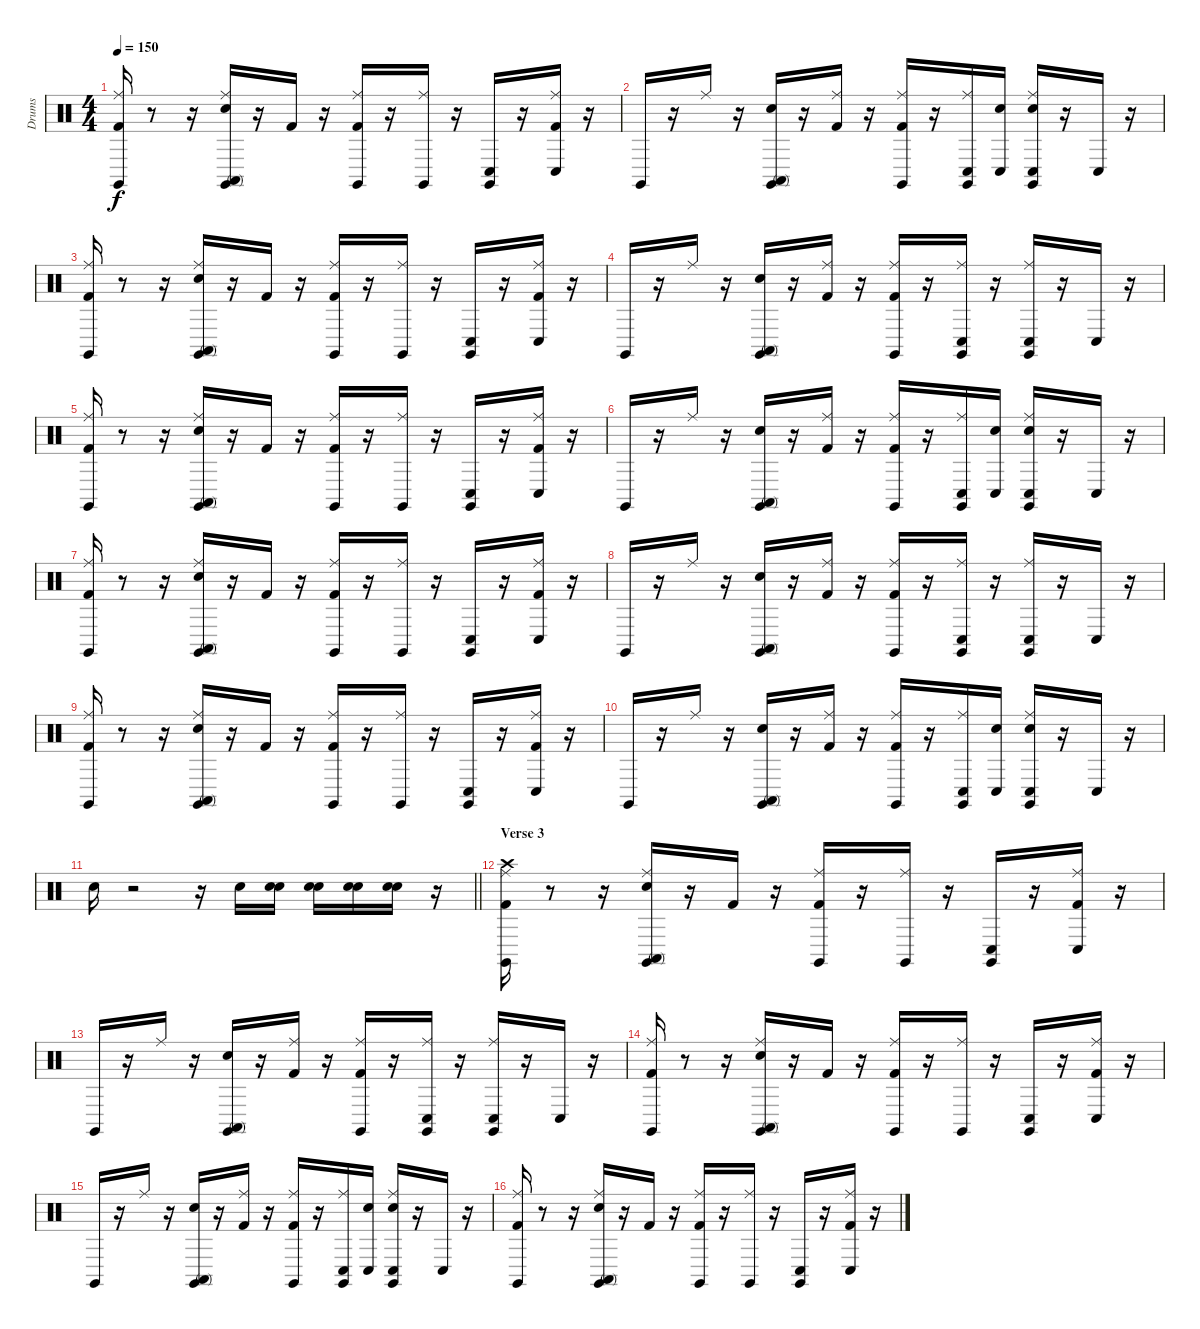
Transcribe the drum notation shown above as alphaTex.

\track ("Drums" "Drums") {instrument percussion}
\staff {score}
\articulation defaults
\ts (4 4)
\tempo 150
\clef neutral
\ks c
("Kick (hit) 2" "Ride (middle)" "Claves (hit)").16{dy f} r.8 r.16 ("Snare (hit) 2" "Ride (middle)" "Conga high (mute)" "Claves (hit)").16 r.16 "Kick (hit) 2".16 r.16 ("Kick (hit) 2" "Ride (middle)" "Claves (hit)").16 r.16 ("Ride (middle)" "Claves (hit)").16 r.16 ("Conga low (hit)" "Claves (hit)").16 r.16 ("Kick (hit) 2" "Ride (middle)" "Conga low (hit)").16 r.16 |
"Claves (hit)".16 r.16 "Ride (middle)".16 r.16 ("Snare (hit) 2" "Conga high (mute)" "Claves (hit)").16 r.16 ("Kick (hit) 2" "Ride (middle)").16 r.16 ("Kick (hit) 2" "Ride (middle)" "Claves (hit)").16 r.16 ("Ride (middle)" "Conga low (hit)" "Claves (hit)").16 ("Snare (hit)" "Conga low (hit)").16 ("Snare (hit)" "Ride (middle)" "Conga low (hit)" "Claves (hit)").16 r.16 "Conga low (hit)".16 r.16 |
("Kick (hit) 2" "Ride (middle)" "Claves (hit)").16 r.8 r.16 ("Snare (hit) 2" "Ride (middle)" "Conga high (mute)" "Claves (hit)").16 r.16 "Kick (hit) 2".16 r.16 ("Kick (hit) 2" "Ride (middle)" "Claves (hit)").16 r.16 ("Ride (middle)" "Claves (hit)").16 r.16 ("Conga low (hit)" "Claves (hit)").16 r.16 ("Kick (hit) 2" "Ride (middle)" "Conga low (hit)").16 r.16 |
"Claves (hit)".16 r.16 "Ride (middle)".16 r.16 ("Snare (hit) 2" "Conga high (mute)" "Claves (hit)").16 r.16 ("Kick (hit) 2" "Ride (middle)").16 r.16 ("Kick (hit) 2" "Ride (middle)" "Claves (hit)").16 r.16 ("Ride (middle)" "Conga low (hit)" "Claves (hit)").16 r.16 ("Ride (middle)" "Conga low (hit)" "Claves (hit)").16 r.16 "Conga low (hit)".16 r.16 |
("Kick (hit) 2" "Ride (middle)" "Claves (hit)").16 r.8 r.16 ("Snare (hit) 2" "Ride (middle)" "Conga high (mute)" "Claves (hit)").16 r.16 "Kick (hit) 2".16 r.16 ("Kick (hit) 2" "Ride (middle)" "Claves (hit)").16 r.16 ("Ride (middle)" "Claves (hit)").16 r.16 ("Conga low (hit)" "Claves (hit)").16 r.16 ("Kick (hit) 2" "Ride (middle)" "Conga low (hit)").16 r.16 |
"Claves (hit)".16 r.16 "Ride (middle)".16 r.16 ("Snare (hit) 2" "Conga high (mute)" "Claves (hit)").16 r.16 ("Kick (hit) 2" "Ride (middle)").16 r.16 ("Kick (hit) 2" "Ride (middle)" "Claves (hit)").16 r.16 ("Ride (middle)" "Conga low (hit)" "Claves (hit)").16 ("Snare (hit)" "Conga low (hit)").16 ("Snare (hit)" "Ride (middle)" "Conga low (hit)" "Claves (hit)").16 r.16 "Conga low (hit)".16 r.16 |
("Kick (hit) 2" "Ride (middle)" "Claves (hit)").16 r.8 r.16 ("Snare (hit) 2" "Ride (middle)" "Conga high (mute)" "Claves (hit)").16 r.16 "Kick (hit) 2".16 r.16 ("Kick (hit) 2" "Ride (middle)" "Claves (hit)").16 r.16 ("Ride (middle)" "Claves (hit)").16 r.16 ("Conga low (hit)" "Claves (hit)").16 r.16 ("Kick (hit) 2" "Ride (middle)" "Conga low (hit)").16 r.16 |
"Claves (hit)".16 r.16 "Ride (middle)".16 r.16 ("Snare (hit) 2" "Conga high (mute)" "Claves (hit)").16 r.16 ("Kick (hit) 2" "Ride (middle)").16 r.16 ("Kick (hit) 2" "Ride (middle)" "Claves (hit)").16 r.16 ("Ride (middle)" "Conga low (hit)" "Claves (hit)").16 r.16 ("Ride (middle)" "Conga low (hit)" "Claves (hit)").16 r.16 "Conga low (hit)".16 r.16 |
("Kick (hit) 2" "Ride (middle)" "Claves (hit)").16 r.8 r.16 ("Snare (hit) 2" "Ride (middle)" "Conga high (mute)" "Claves (hit)").16 r.16 "Kick (hit) 2".16 r.16 ("Kick (hit) 2" "Ride (middle)" "Claves (hit)").16 r.16 ("Ride (middle)" "Claves (hit)").16 r.16 ("Conga low (hit)" "Claves (hit)").16 r.16 ("Kick (hit) 2" "Ride (middle)" "Conga low (hit)").16 r.16 |
"Claves (hit)".16 r.16 "Ride (middle)".16 r.16 ("Snare (hit) 2" "Conga high (mute)" "Claves (hit)").16 r.16 ("Kick (hit) 2" "Ride (middle)").16 r.16 ("Kick (hit) 2" "Ride (middle)" "Claves (hit)").16 r.16 ("Ride (middle)" "Conga low (hit)" "Claves (hit)").16 ("Snare (hit)" "Conga low (hit)").16 ("Snare (hit)" "Ride (middle)" "Conga low (hit)" "Claves (hit)").16 r.16 "Conga low (hit)".16 r.16 |
\barLineRight lightlight "Snare (hit) 2".16
r.2 r.16 "Snare (hit) 2".16 ("Snare (hit)" "Snare (hit) 2").16 ("Snare (hit)" "Snare (hit) 2").16 ("Snare (hit)" "Snare (hit) 2").16 ("Snare (hit)" "Snare (hit) 2").16 r.16 |
\section ("" "Verse 3")
("Kick (hit) 2" "Crash high (hit)" "Ride (middle)" "Claves (hit)").16 r.8 r.16 ("Snare (hit) 2" "Ride (middle)" "Conga high (mute)" "Claves (hit)").16 r.16 "Kick (hit) 2".16 r.16 ("Kick (hit) 2" "Ride (middle)" "Claves (hit)").16 r.16 ("Ride (middle)" "Claves (hit)").16 r.16 ("Conga low (hit)" "Claves (hit)").16 r.16 ("Kick (hit) 2" "Ride (middle)" "Conga low (hit)").16 r.16 |
"Claves (hit)".16 r.16 "Ride (middle)".16 r.16 ("Snare (hit) 2" "Conga high (mute)" "Claves (hit)").16 r.16 ("Kick (hit) 2" "Ride (middle)").16 r.16 ("Kick (hit) 2" "Ride (middle)" "Claves (hit)").16 r.16 ("Ride (middle)" "Conga low (hit)" "Claves (hit)").16 r.16 ("Ride (middle)" "Conga low (hit)" "Claves (hit)").16 r.16 "Conga low (hit)".16 r.16 |
("Kick (hit) 2" "Ride (middle)" "Claves (hit)").16 r.8 r.16 ("Snare (hit) 2" "Ride (middle)" "Conga high (mute)" "Claves (hit)").16 r.16 "Kick (hit) 2".16 r.16 ("Kick (hit) 2" "Ride (middle)" "Claves (hit)").16 r.16 ("Ride (middle)" "Claves (hit)").16 r.16 ("Conga low (hit)" "Claves (hit)").16 r.16 ("Kick (hit) 2" "Ride (middle)" "Conga low (hit)").16 r.16 |
"Claves (hit)".16 r.16 "Ride (middle)".16 r.16 ("Snare (hit) 2" "Conga high (mute)" "Claves (hit)").16 r.16 ("Kick (hit) 2" "Ride (middle)").16 r.16 ("Kick (hit) 2" "Ride (middle)" "Claves (hit)").16 r.16 ("Ride (middle)" "Conga low (hit)" "Claves (hit)").16 ("Snare (hit)" "Conga low (hit)").16 ("Snare (hit)" "Ride (middle)" "Conga low (hit)" "Claves (hit)").16 r.16 "Conga low (hit)".16 r.16 |
("Kick (hit) 2" "Ride (middle)" "Claves (hit)").16 r.8 r.16 ("Snare (hit) 2" "Ride (middle)" "Conga high (mute)" "Claves (hit)").16 r.16 "Kick (hit) 2".16 r.16 ("Kick (hit) 2" "Ride (middle)" "Claves (hit)").16 r.16 ("Ride (middle)" "Claves (hit)").16 r.16 ("Conga low (hit)" "Claves (hit)").16 r.16 ("Kick (hit) 2" "Ride (middle)" "Conga low (hit)").16 r.16
